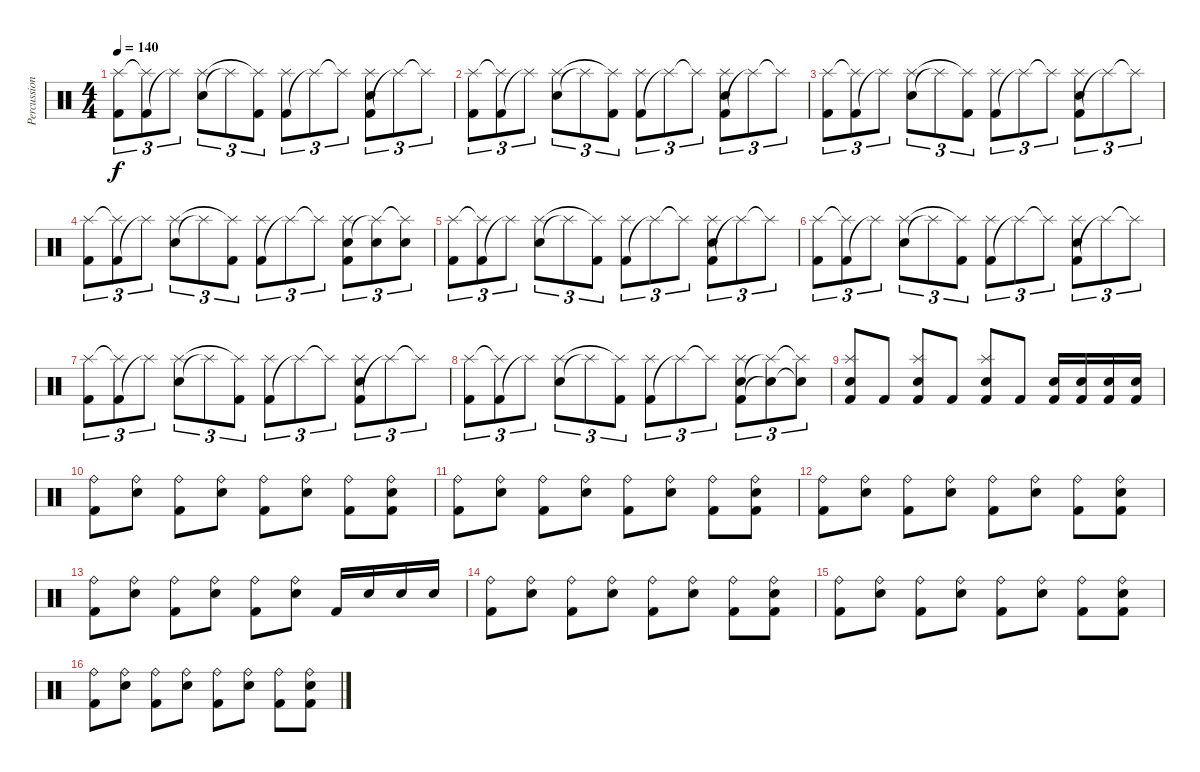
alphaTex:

\track ("Percussion" "Percussion") {instrument percussion}
\staff {score}
\articulation defaults
\ts (4 4)
\tempo 140
\clef neutral
\ks c
("Kick (hit) 2" "Splash (hit)").8{tu (3 2) dy f} ("Kick (hit) 2" "Splash (hit)"{t}).8{tu (3 2)} "Splash (hit)"{t}.8{tu (3 2)} ("Snare (hit) 2" "Splash (hit)").8{tu (3 2)} "Splash (hit)"{t}.8{tu (3 2)} ("Kick (hit) 2" "Splash (hit)"{t}).8{tu (3 2)} ("Kick (hit) 2" "Splash (hit)").8{tu (3 2)} "Splash (hit)"{t}.8{tu (3 2)} "Splash (hit)"{t}.8{tu (3 2)} ("Kick (hit) 2" "Snare (hit) 2" "Splash (hit)").8{tu (3 2)} "Splash (hit)"{t}.8{tu (3 2)} "Splash (hit)"{t}.8{tu (3 2)} |
("Kick (hit) 2" "Splash (hit)").8{tu (3 2)} ("Kick (hit) 2" "Splash (hit)"{t}).8{tu (3 2)} "Splash (hit)"{t}.8{tu (3 2)} ("Snare (hit) 2" "Splash (hit)").8{tu (3 2)} "Splash (hit)"{t}.8{tu (3 2)} ("Kick (hit) 2" "Splash (hit)"{t}).8{tu (3 2)} ("Kick (hit) 2" "Splash (hit)").8{tu (3 2)} "Splash (hit)"{t}.8{tu (3 2)} "Splash (hit)"{t}.8{tu (3 2)} ("Kick (hit) 2" "Snare (hit) 2" "Splash (hit)").8{tu (3 2)} "Splash (hit)"{t}.8{tu (3 2)} "Splash (hit)"{t}.8{tu (3 2)} |
("Kick (hit) 2" "Splash (hit)").8{tu (3 2)} ("Kick (hit) 2" "Splash (hit)"{t}).8{tu (3 2)} "Splash (hit)"{t}.8{tu (3 2)} ("Snare (hit) 2" "Splash (hit)").8{tu (3 2)} "Splash (hit)"{t}.8{tu (3 2)} ("Kick (hit) 2" "Splash (hit)"{t}).8{tu (3 2)} ("Kick (hit) 2" "Splash (hit)").8{tu (3 2)} "Splash (hit)"{t}.8{tu (3 2)} "Splash (hit)"{t}.8{tu (3 2)} ("Kick (hit) 2" "Snare (hit) 2" "Splash (hit)").8{tu (3 2)} "Splash (hit)"{t}.8{tu (3 2)} "Splash (hit)"{t}.8{tu (3 2)} |
("Kick (hit) 2" "Splash (hit)").8{tu (3 2)} ("Kick (hit) 2" "Splash (hit)"{t}).8{tu (3 2)} "Splash (hit)"{t}.8{tu (3 2)} ("Snare (hit) 2" "Splash (hit)").8{tu (3 2)} "Splash (hit)"{t}.8{tu (3 2)} ("Kick (hit) 2" "Splash (hit)"{t}).8{tu (3 2)} ("Kick (hit) 2" "Splash (hit)").8{tu (3 2)} "Splash (hit)"{t}.8{tu (3 2)} "Splash (hit)"{t}.8{tu (3 2)} ("Kick (hit) 2" "Snare (hit) 2" "Splash (hit)").8{tu (3 2)} ("Snare (hit) 2" "Splash (hit)"{t}).8{tu (3 2)} ("Snare (hit) 2" "Splash (hit)"{t}).8{tu (3 2)} |
("Kick (hit) 2" "Splash (hit)").8{tu (3 2)} ("Kick (hit) 2" "Splash (hit)"{t}).8{tu (3 2)} "Splash (hit)"{t}.8{tu (3 2)} ("Snare (hit) 2" "Splash (hit)").8{tu (3 2)} "Splash (hit)"{t}.8{tu (3 2)} ("Kick (hit) 2" "Splash (hit)"{t}).8{tu (3 2)} ("Kick (hit) 2" "Splash (hit)").8{tu (3 2)} "Splash (hit)"{t}.8{tu (3 2)} "Splash (hit)"{t}.8{tu (3 2)} ("Kick (hit) 2" "Snare (hit) 2" "Splash (hit)").8{tu (3 2)} "Splash (hit)"{t}.8{tu (3 2)} "Splash (hit)"{t}.8{tu (3 2)} |
("Kick (hit) 2" "Splash (hit)").8{tu (3 2)} ("Kick (hit) 2" "Splash (hit)"{t}).8{tu (3 2)} "Splash (hit)"{t}.8{tu (3 2)} ("Snare (hit) 2" "Splash (hit)").8{tu (3 2)} "Splash (hit)"{t}.8{tu (3 2)} ("Kick (hit) 2" "Splash (hit)"{t}).8{tu (3 2)} ("Kick (hit) 2" "Splash (hit)").8{tu (3 2)} "Splash (hit)"{t}.8{tu (3 2)} "Splash (hit)"{t}.8{tu (3 2)} ("Kick (hit) 2" "Snare (hit) 2" "Splash (hit)").8{tu (3 2)} "Splash (hit)"{t}.8{tu (3 2)} "Splash (hit)"{t}.8{tu (3 2)} |
("Kick (hit) 2" "Splash (hit)").8{tu (3 2)} ("Kick (hit) 2" "Splash (hit)"{t}).8{tu (3 2)} "Splash (hit)"{t}.8{tu (3 2)} ("Snare (hit) 2" "Splash (hit)").8{tu (3 2)} "Splash (hit)"{t}.8{tu (3 2)} ("Kick (hit) 2" "Splash (hit)"{t}).8{tu (3 2)} ("Kick (hit) 2" "Splash (hit)").8{tu (3 2)} "Splash (hit)"{t}.8{tu (3 2)} "Splash (hit)"{t}.8{tu (3 2)} ("Kick (hit) 2" "Snare (hit) 2" "Splash (hit)").8{tu (3 2)} "Splash (hit)"{t}.8{tu (3 2)} "Splash (hit)"{t}.8{tu (3 2)} |
("Kick (hit) 2" "Splash (hit)").8{tu (3 2)} ("Kick (hit) 2" "Splash (hit)"{t}).8{tu (3 2)} "Splash (hit)"{t}.8{tu (3 2)} ("Snare (hit) 2" "Splash (hit)").8{tu (3 2)} "Splash (hit)"{t}.8{tu (3 2)} ("Kick (hit) 2" "Splash (hit)"{t}).8{tu (3 2)} ("Kick (hit) 2" "Splash (hit)").8{tu (3 2)} "Splash (hit)"{t}.8{tu (3 2)} "Splash (hit)"{t}.8{tu (3 2)} ("Kick (hit) 2" "Snare (hit) 2" "Splash (hit)").8{tu (3 2)} ("Snare (hit) 2"{t} "Splash (hit)"{t}).8{tu (3 2)} ("Snare (hit) 2"{t} "Splash (hit)"{t}).8{tu (3 2)} |
("Kick (hit) 2" "Snare (hit) 2" "Splash (hit)").8 "Kick (hit) 2".8 ("Kick (hit) 2" "Snare (hit) 2" "Splash (hit)").8 "Kick (hit) 2".8 ("Kick (hit) 2" "Snare (hit) 2" "Splash (hit)").8 "Kick (hit) 2".8 ("Kick (hit) 2" "Snare (hit) 2").16 ("Kick (hit) 2" "Snare (hit) 2").16 ("Kick (hit) 2" "Snare (hit) 2").16 ("Kick (hit) 2" "Snare (hit) 2").16 |
("Kick (hit) 2" "Ride (bell)").8 ("Snare (hit) 2" "Ride (bell)").8 ("Kick (hit) 2" "Ride (bell)").8 ("Snare (hit) 2" "Ride (bell)").8 ("Kick (hit) 2" "Ride (bell)").8 ("Snare (hit) 2" "Ride (bell)").8 ("Kick (hit) 2" "Ride (bell)").8 ("Kick (hit) 2" "Snare (hit) 2" "Ride (bell)").8 |
("Kick (hit) 2" "Ride (bell)").8 ("Snare (hit) 2" "Ride (bell)").8 ("Kick (hit) 2" "Ride (bell)").8 ("Snare (hit) 2" "Ride (bell)").8 ("Kick (hit) 2" "Ride (bell)").8 ("Snare (hit) 2" "Ride (bell)").8 ("Kick (hit) 2" "Ride (bell)").8 ("Kick (hit) 2" "Snare (hit) 2" "Ride (bell)").8 |
("Kick (hit) 2" "Ride (bell)").8 ("Snare (hit) 2" "Ride (bell)").8 ("Kick (hit) 2" "Ride (bell)").8 ("Snare (hit) 2" "Ride (bell)").8 ("Kick (hit) 2" "Ride (bell)").8 ("Snare (hit) 2" "Ride (bell)").8 ("Kick (hit) 2" "Ride (bell)").8 ("Kick (hit) 2" "Snare (hit) 2" "Ride (bell)").8 |
("Kick (hit) 2" "Ride (bell)").8 ("Snare (hit) 2" "Ride (bell)").8 ("Kick (hit) 2" "Ride (bell)").8 ("Snare (hit) 2" "Ride (bell)").8 ("Kick (hit) 2" "Ride (bell)").8 ("Snare (hit) 2" "Ride (bell)").8 "Kick (hit) 2".16 "Snare (hit) 2".16 "Snare (hit) 2".16 "Snare (hit) 2".16 |
("Kick (hit) 2" "Ride (bell)").8 ("Snare (hit) 2" "Ride (bell)").8 ("Kick (hit) 2" "Ride (bell)").8 ("Snare (hit) 2" "Ride (bell)").8 ("Kick (hit) 2" "Ride (bell)").8 ("Snare (hit) 2" "Ride (bell)").8 ("Kick (hit) 2" "Ride (bell)").8 ("Kick (hit) 2" "Snare (hit) 2" "Ride (bell)").8 |
("Kick (hit) 2" "Ride (bell)").8 ("Snare (hit) 2" "Ride (bell)").8 ("Kick (hit) 2" "Ride (bell)").8 ("Snare (hit) 2" "Ride (bell)").8 ("Kick (hit) 2" "Ride (bell)").8 ("Snare (hit) 2" "Ride (bell)").8 ("Kick (hit) 2" "Ride (bell)").8 ("Kick (hit) 2" "Snare (hit) 2" "Ride (bell)").8 |
("Kick (hit) 2" "Ride (bell)").8 ("Snare (hit) 2" "Ride (bell)").8 ("Kick (hit) 2" "Ride (bell)").8 ("Snare (hit) 2" "Ride (bell)").8 ("Kick (hit) 2" "Ride (bell)").8 ("Snare (hit) 2" "Ride (bell)").8 ("Kick (hit) 2" "Ride (bell)").8 ("Kick (hit) 2" "Snare (hit) 2" "Ride (bell)").8
